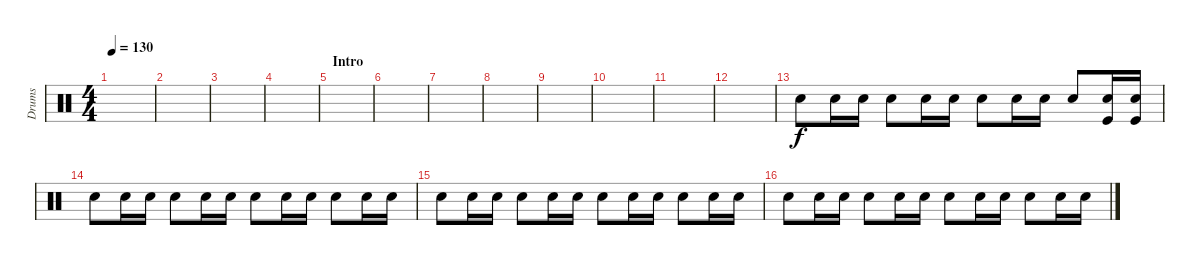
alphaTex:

\track ("Drums" "Drums") {instrument percussion}
\staff {score}
\articulation defaults
\ts (4 4)
\section ("" "")
\tempo 130
\clef neutral
\ks c
|
|
|
|
\section ("" "Intro")
|
|
|
|
|
|
|
|
"Snare (hit) 2".8 "Snare (hit) 2".16 "Snare (hit) 2".16 "Snare (hit) 2".8 "Snare (hit) 2".16 "Snare (hit) 2".16 "Snare (hit) 2".8 "Snare (hit) 2".16 "Snare (hit) 2".16 "Snare (hit) 2".8 ("Snare (hit) 2" "Kick (hit)").16 ("Snare (hit) 2" "Kick (hit)").16 |
"Snare (hit) 2".8 "Snare (hit) 2".16 "Snare (hit) 2".16 "Snare (hit) 2".8 "Snare (hit) 2".16 "Snare (hit) 2".16 "Snare (hit) 2".8 "Snare (hit) 2".16 "Snare (hit) 2".16 "Snare (hit) 2".8 "Snare (hit) 2".16 "Snare (hit) 2".16 |
"Snare (hit) 2".8 "Snare (hit) 2".16 "Snare (hit) 2".16 "Snare (hit) 2".8 "Snare (hit) 2".16 "Snare (hit) 2".16 "Snare (hit) 2".8 "Snare (hit) 2".16 "Snare (hit) 2".16 "Snare (hit) 2".8 "Snare (hit) 2".16 "Snare (hit) 2".16 |
"Snare (hit) 2".8 "Snare (hit) 2".16 "Snare (hit) 2".16 "Snare (hit) 2".8 "Snare (hit) 2".16 "Snare (hit) 2".16 "Snare (hit) 2".8 "Snare (hit) 2".16 "Snare (hit) 2".16 "Snare (hit) 2".8 "Snare (hit) 2".16 "Snare (hit) 2".16
